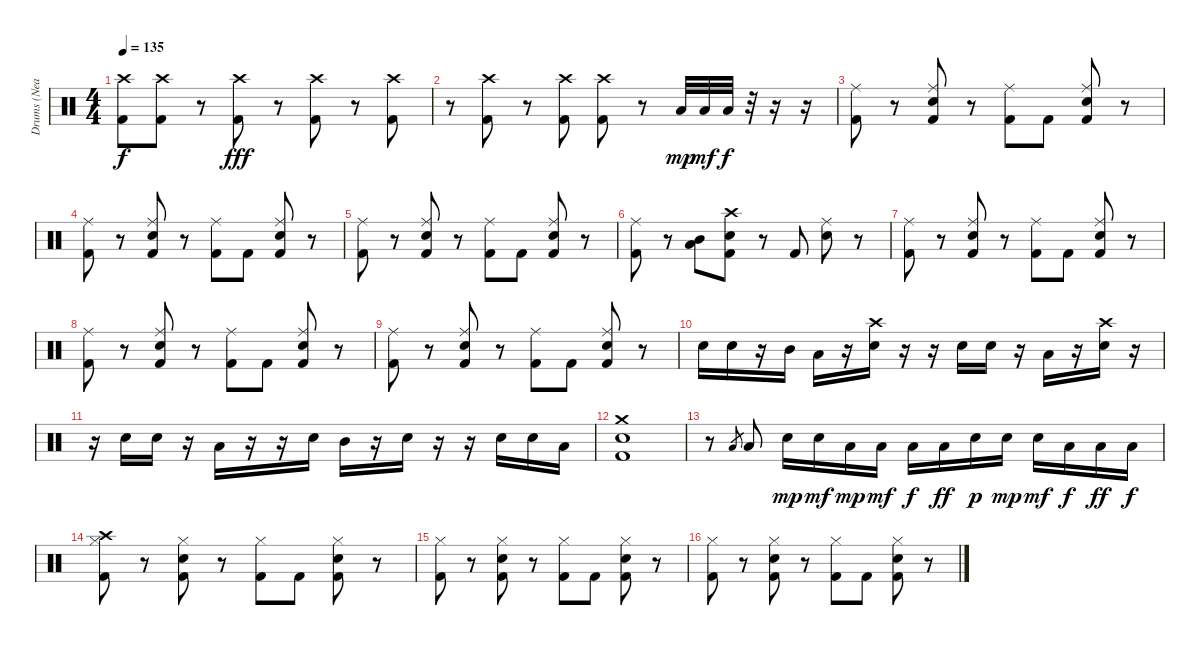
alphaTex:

\track ("Drums (Neal Peart)" "Drums (Nea") {instrument percussion}
\staff {score}
\articulation defaults
\ts (4 4)
\tempo 135
\clef neutral
\ks c
("Crash high (hit)" "Kick (hit) 2").8{dy f volume 16} ("Crash high (hit)" "Kick (hit) 2").8 r.8{volume 0} ("Crash high (hit)" "Kick (hit) 2").8{dy fff volume 16} r.8{volume 0} ("Crash high (hit)" "Kick (hit) 2").8{volume 16} r.8{volume 0} ("Crash high (hit)" "Kick (hit) 2").8{volume 16} |
r.8{volume 0} ("Crash high (hit)" "Kick (hit) 2").8{volume 16} r.8{volume 0} ("Crash high (hit)" "Kick (hit) 2").8{volume 16} ("Crash high (hit)" "Kick (hit) 2").8 r.8 "Low Tom (hit)".32{dy mp} "Low Tom (hit)".32{dy mf} "Low Tom (hit)".32{dy f} r.32 r.16 r.16 |
("Ride (middle)" "Kick (hit) 2").8 r.8 ("Ride (middle)" "Electric Snare (hit)" "Kick (hit) 2").8 r.8 ("Ride (middle)" "Kick (hit) 2").8 "Kick (hit) 2".8 ("Ride (middle)" "Electric Snare (hit)" "Kick (hit) 2").8 r.8 |
("Ride (middle)" "Kick (hit) 2").8 r.8 ("Ride (middle)" "Electric Snare (hit)" "Kick (hit) 2").8 r.8 ("Ride (middle)" "Kick (hit) 2").8 "Kick (hit) 2".8 ("Ride (middle)" "Electric Snare (hit)" "Kick (hit) 2").8 r.8 |
("Ride (middle)" "Kick (hit) 2").8 r.8 ("Ride (middle)" "Electric Snare (hit)" "Kick (hit) 2").8 r.8 ("Ride (middle)" "Kick (hit) 2").8 "Kick (hit) 2".8 ("Ride (middle)" "Electric Snare (hit)" "Kick (hit) 2").8 r.8 |
("Ride (middle)" "Kick (hit) 2").8 r.8 ("Low Tom (hit)" "Mid Tom (hit)").8 ("Crash high (hit)" "Electric Snare (hit)" "Kick (hit) 2").8 r.8 "Kick (hit) 2".8 ("Ride (middle)" "Electric Snare (hit)").8 r.8 |
("Ride (middle)" "Kick (hit) 2").8 r.8 ("Ride (middle)" "Electric Snare (hit)" "Kick (hit) 2").8 r.8 ("Ride (middle)" "Kick (hit) 2").8 "Kick (hit) 2".8 ("Ride (middle)" "Electric Snare (hit)" "Kick (hit) 2").8 r.8 |
("Ride (middle)" "Kick (hit) 2").8 r.8 ("Ride (middle)" "Electric Snare (hit)" "Kick (hit) 2").8 r.8 ("Ride (middle)" "Kick (hit) 2").8 "Kick (hit) 2".8 ("Ride (middle)" "Electric Snare (hit)" "Kick (hit) 2").8 r.8 |
("Ride (middle)" "Kick (hit) 2").8 r.8 ("Ride (middle)" "Electric Snare (hit)" "Kick (hit) 2").8 r.8 ("Ride (middle)" "Kick (hit) 2").8 "Kick (hit) 2".8 ("Ride (middle)" "Electric Snare (hit)" "Kick (hit) 2").8 r.8 |
"Electric Snare (hit)".16 "Electric Snare (hit)".16 r.16 "Mid Tom (hit)".16 "Low Tom (hit)".16 r.16 ("Crash high (hit)" "Electric Snare (hit)").16 r.16 r.16 "Electric Snare (hit)".16 "Electric Snare (hit)".16 r.16 "Low Tom (hit)".16 r.16 ("Crash high (hit)" "Electric Snare (hit)").16 r.16 |
r.16 "Electric Snare (hit)".16 "Electric Snare (hit)".16 r.16 "Low Tom (hit)".16 r.16 r.16 "Electric Snare (hit)".16 "Mid Tom (hit)".16 r.16 "Electric Snare (hit)".16 r.16 r.16 "Electric Snare (hit)".16 "Electric Snare (hit)".16 "Low Tom (hit)".16 |
("Crash medium (hit)" "Electric Snare (hit)" "Kick (hit) 2").1 |
r.8 "Low Tom (hit)".8{gr} "Low Tom (hit)".8 "Electric Snare (hit)".16{dy mp} "Electric Snare (hit)".16{dy mf} "Low Tom (hit)".16{dy mp} "Low Tom (hit)".16{dy mf} "Low Tom (hit)".16{dy f} "Low Tom (hit)".16{dy ff} "Electric Snare (hit)".16{dy p} "Electric Snare (hit)".16{dy mp} "Electric Snare (hit)".16{dy mf} "Low Tom (hit)".16{dy f} "Low Tom (hit)".16{dy ff} "Low Tom (hit)".16{dy f} |
("Crash high (hit)" "Hi-Hat (closed)" "Kick (hit) 2").8 r.8 ("Hi-Hat (closed)" "Electric Snare (hit)" "Kick (hit) 2").8 r.8 ("Hi-Hat (closed)" "Kick (hit) 2").8 "Kick (hit) 2".8 ("Hi-Hat (closed)" "Electric Snare (hit)" "Kick (hit) 2").8 r.8 |
("Hi-Hat (closed)" "Kick (hit) 2").8 r.8 ("Hi-Hat (closed)" "Electric Snare (hit)" "Kick (hit) 2").8 r.8 ("Hi-Hat (closed)" "Kick (hit) 2").8 "Kick (hit) 2".8 ("Hi-Hat (closed)" "Electric Snare (hit)" "Kick (hit) 2").8 r.8 |
("Hi-Hat (closed)" "Kick (hit) 2").8 r.8 ("Hi-Hat (closed)" "Electric Snare (hit)" "Kick (hit) 2").8 r.8 ("Hi-Hat (closed)" "Kick (hit) 2").8 "Kick (hit) 2".8 ("Hi-Hat (closed)" "Electric Snare (hit)" "Kick (hit) 2").8 r.8
